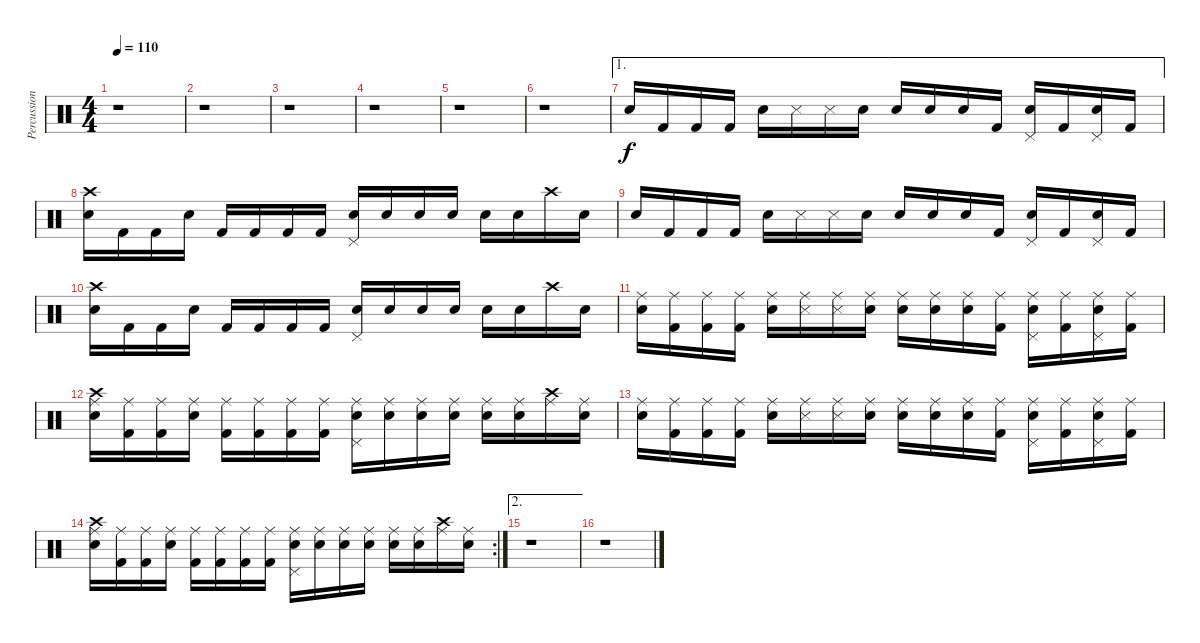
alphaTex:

\track ("Percussions" "Percussion") {instrument percussion}
\staff {score}
\articulation defaults
\ts (4 4)
\tempo 110
\clef neutral
\ks c
r.1{dy f} |
r.1 |
r.1 |
r.1 |
r.1 |
r.1 |
\ae 1 "Electric Snare (hit)".16 "Kick (hit) 2".16 "Kick (hit) 2".16 "Kick (hit) 2".16 "Electric Snare (hit)".16 "Snare (side stick) 3".16 "Snare (side stick) 3".16 "Snare (hit) 2".16 "Electric Snare (hit)".16 "Snare (hit) 2".16 "Electric Snare (hit)".16 "Kick (hit) 2".16
("Pedal Hi-Hat (hit)" "Snare (hit) 2").16 "Kick (hit) 2".16 ("Pedal Hi-Hat (hit)" "Snare (hit) 2").16 "Kick (hit) 2".16 |
("Crash high (hit)" "Electric Snare (hit)").16 "Kick (hit) 2".16 "Kick (hit) 2".16 "Electric Snare (hit)".16 "Kick (hit) 2".16 "Kick (hit) 2".16 "Kick (hit) 2".16 "Kick (hit) 2".16 ("Pedal Hi-Hat (hit)" "Electric Snare (hit)").16 "Snare (hit) 2".16 "Snare (hit) 2".16 "Electric Snare (hit)".16 "Snare (hit) 2".16 "Snare (hit) 2".16 "Crash high (hit)".16 "Electric Snare (hit)".16 |
"Electric Snare (hit)".16 "Kick (hit) 2".16 "Kick (hit) 2".16 "Kick (hit) 2".16 "Electric Snare (hit)".16 "Snare (side stick) 3".16 "Snare (side stick) 3".16 "Snare (hit) 2".16 "Electric Snare (hit)".16 "Snare (hit) 2".16 "Electric Snare (hit)".16 "Kick (hit) 2".16 ("Pedal Hi-Hat (hit)" "Snare (hit) 2").16 "Kick (hit) 2".16 ("Pedal Hi-Hat (hit)" "Snare (hit) 2").16 "Kick (hit) 2".16 |
("Crash high (hit)" "Electric Snare (hit)").16 "Kick (hit) 2".16 "Kick (hit) 2".16 "Electric Snare (hit)".16 "Kick (hit) 2".16 "Kick (hit) 2".16 "Kick (hit) 2".16 "Kick (hit) 2".16 ("Pedal Hi-Hat (hit)" "Electric Snare (hit)").16 "Snare (hit) 2".16 "Snare (hit) 2".16 "Electric Snare (hit)".16 "Snare (hit) 2".16 "Snare (hit) 2".16 "Crash high (hit)".16 "Electric Snare (hit)".16 |
("Ride (middle)" "Electric Snare (hit)").16 ("Ride (middle)" "Kick (hit) 2").16 ("Ride (middle)" "Kick (hit) 2").16 ("Ride (middle)" "Kick (hit) 2").16 ("Ride (middle)" "Electric Snare (hit)").16 ("Ride (middle)" "Snare (side stick) 3").16 ("Ride (middle)" "Snare (side stick) 3").16 ("Ride (middle)" "Snare (hit) 2").16 ("Ride (middle)" "Electric Snare (hit)").16 ("Ride (middle)" "Snare (hit) 2").16 ("Ride (middle)" "Electric Snare (hit)").16 ("Ride (middle)" "Kick (hit) 2").16 ("Ride (middle)" "Pedal Hi-Hat (hit)" "Snare (hit) 2").16 ("Ride (middle)" "Kick (hit) 2").16 ("Ride (middle)" "Pedal Hi-Hat (hit)" "Snare (hit) 2").16 ("Ride (middle)" "Kick (hit) 2").16 |
("Ride (middle)" "Crash high (hit)" "Electric Snare (hit)").16 ("Ride (middle)" "Kick (hit) 2").16 ("Ride (middle)" "Kick (hit) 2").16 ("Ride (middle)" "Electric Snare (hit)").16 ("Ride (middle)" "Kick (hit) 2").16 ("Ride (middle)" "Kick (hit) 2").16 ("Ride (middle)" "Kick (hit) 2").16 ("Ride (middle)" "Kick (hit) 2").16 ("Ride (middle)" "Pedal Hi-Hat (hit)" "Electric Snare (hit)").16 ("Ride (middle)" "Snare (hit) 2").16 ("Ride (middle)" "Snare (hit) 2").16 ("Ride (middle)" "Electric Snare (hit)").16 ("Ride (middle)" "Snare (hit) 2").16 ("Ride (middle)" "Snare (hit) 2").16 ("Ride (middle)" "Crash high (hit)").16 ("Ride (middle)" "Electric Snare (hit)").16 |
("Ride (middle)" "Electric Snare (hit)").16 ("Ride (middle)" "Kick (hit) 2").16 ("Ride (middle)" "Kick (hit) 2").16 ("Ride (middle)" "Kick (hit) 2").16 ("Ride (middle)" "Electric Snare (hit)").16 ("Ride (middle)" "Snare (side stick) 3").16 ("Ride (middle)" "Snare (side stick) 3").16 ("Ride (middle)" "Snare (hit) 2").16 ("Ride (middle)" "Electric Snare (hit)").16 ("Ride (middle)" "Snare (hit) 2").16 ("Ride (middle)" "Electric Snare (hit)").16 ("Ride (middle)" "Kick (hit) 2").16 ("Ride (middle)" "Pedal Hi-Hat (hit)" "Snare (hit) 2").16 ("Ride (middle)" "Kick (hit) 2").16 ("Ride (middle)" "Pedal Hi-Hat (hit)" "Snare (hit) 2").16 ("Ride (middle)" "Kick (hit) 2").16 |
\rc 2
("Ride (middle)" "Crash high (hit)" "Electric Snare (hit)").16 ("Ride (middle)" "Kick (hit) 2").16 ("Ride (middle)" "Kick (hit) 2").16 ("Ride (middle)" "Electric Snare (hit)").16 ("Ride (middle)" "Kick (hit) 2").16 ("Ride (middle)" "Kick (hit) 2").16 ("Ride (middle)" "Kick (hit) 2").16 ("Ride (middle)" "Kick (hit) 2").16 ("Ride (middle)" "Pedal Hi-Hat (hit)" "Electric Snare (hit)").16 ("Ride (middle)" "Snare (hit) 2").16 ("Ride (middle)" "Snare (hit) 2").16 ("Ride (middle)" "Electric Snare (hit)").16 ("Ride (middle)" "Snare (hit) 2").16 ("Ride (middle)" "Snare (hit) 2").16 ("Ride (middle)" "Crash high (hit)").16 ("Ride (middle)" "Electric Snare (hit)").16 |
\ae 2
r.1 |
r.1
